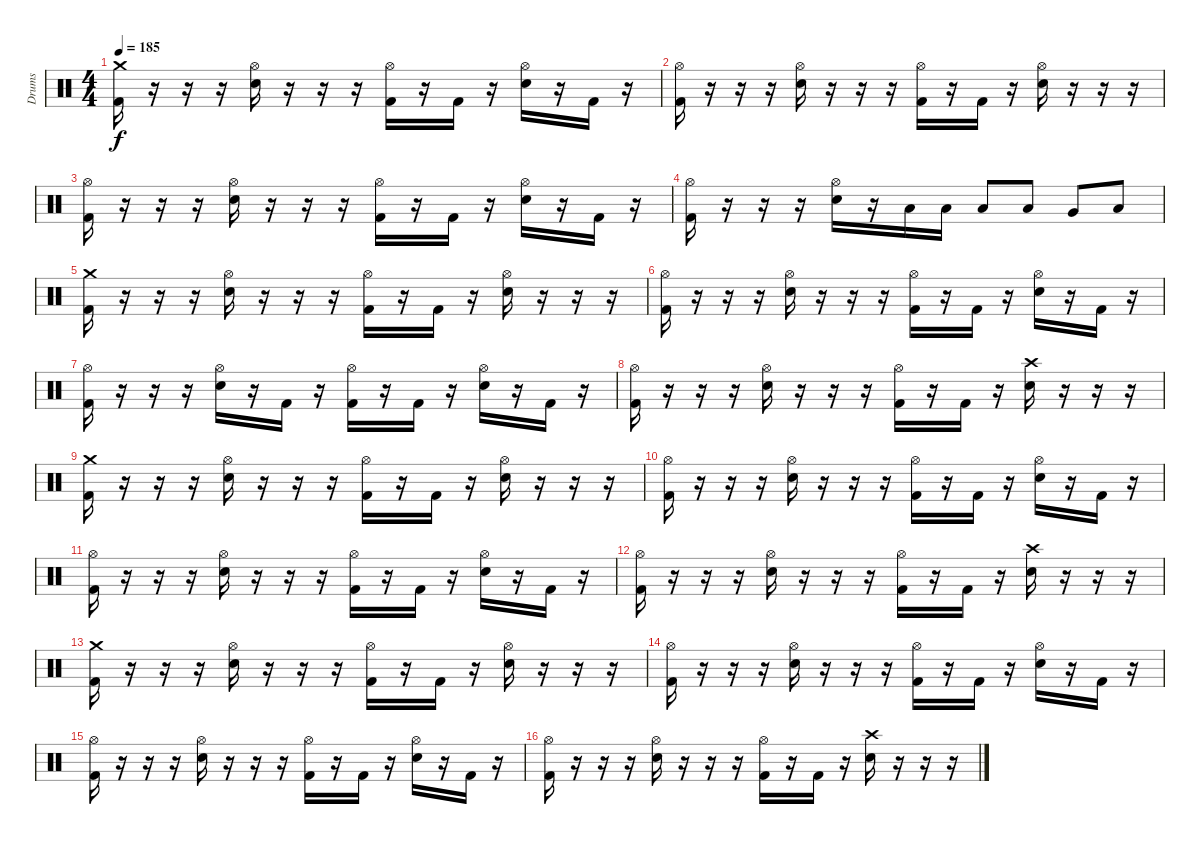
\track ("Drums" "Drums") {instrument percussion}
\staff {score}
\articulation defaults
\ts (4 4)
\tempo 185
\clef neutral
\ks c
("Crash medium (hit)" "Kick (hit) 2").16{dy f} r.16 r.16 r.16 ("Hi-Hat (open)" "Electric Snare (hit)").16 r.16 r.16 r.16 ("Hi-Hat (open)" "Kick (hit) 2").16 r.16 "Kick (hit) 2".16 r.16 ("Hi-Hat (open)" "Electric Snare (hit)").16 r.16 "Kick (hit) 2".16 r.16 |
("Hi-Hat (open)" "Kick (hit) 2").16 r.16 r.16 r.16 ("Hi-Hat (open)" "Electric Snare (hit)").16 r.16 r.16 r.16 ("Hi-Hat (open)" "Kick (hit) 2").16 r.16 "Kick (hit) 2".16 r.16 ("Hi-Hat (open)" "Electric Snare (hit)").16 r.16 r.16 r.16 |
("Hi-Hat (open)" "Kick (hit) 2").16 r.16 r.16 r.16 ("Hi-Hat (open)" "Electric Snare (hit)").16 r.16 r.16 r.16 ("Hi-Hat (open)" "Kick (hit) 2").16 r.16 "Kick (hit) 2".16 r.16 ("Hi-Hat (open)" "Electric Snare (hit)").16 r.16 "Kick (hit) 2".16 r.16 |
("Hi-Hat (open)" "Kick (hit) 2").16 r.16 r.16 r.16 ("Hi-Hat (open)" "Electric Snare (hit)").16 r.16 "Low Tom (hit)".16 "Low Tom (hit)".16 "Low Tom (hit)".8 "Low Tom (hit)".8 "Very Low Tom (hit)".8 "Low Floor Tom (hit)".8 |
("Crash medium (hit)" "Kick (hit) 2").16 r.16 r.16 r.16 ("Hi-Hat (open)" "Electric Snare (hit)").16 r.16 r.16 r.16 ("Hi-Hat (open)" "Kick (hit) 2").16 r.16 "Kick (hit) 2".16 r.16 ("Hi-Hat (open)" "Electric Snare (hit)").16 r.16 r.16 r.16 |
("Hi-Hat (open)" "Kick (hit) 2").16 r.16 r.16 r.16 ("Hi-Hat (open)" "Electric Snare (hit)").16 r.16 r.16 r.16 ("Hi-Hat (open)" "Kick (hit) 2").16 r.16 "Kick (hit) 2".16 r.16 ("Hi-Hat (open)" "Electric Snare (hit)").16 r.16 "Kick (hit) 2".16 r.16 |
("Hi-Hat (open)" "Kick (hit) 2").16 r.16 r.16 r.16 ("Hi-Hat (open)" "Electric Snare (hit)").16 r.16 "Kick (hit) 2".16 r.16 ("Hi-Hat (open)" "Kick (hit) 2").16 r.16 "Kick (hit) 2".16 r.16 ("Hi-Hat (open)" "Electric Snare (hit)").16 r.16 "Kick (hit) 2".16 r.16 |
("Hi-Hat (open)" "Kick (hit) 2").16 r.16 r.16 r.16 ("Hi-Hat (open)" "Electric Snare (hit)").16 r.16 r.16 r.16 ("Hi-Hat (open)" "Kick (hit) 2").16 r.16 "Kick (hit) 2".16 r.16 ("Crash high (hit)" "Electric Snare (hit)").16 r.16 r.16 r.16 |
("Crash medium (hit)" "Kick (hit) 2").16 r.16 r.16 r.16 ("Hi-Hat (open)" "Electric Snare (hit)").16 r.16 r.16 r.16 ("Hi-Hat (open)" "Kick (hit) 2").16 r.16 "Kick (hit) 2".16 r.16 ("Hi-Hat (open)" "Electric Snare (hit)").16 r.16 r.16 r.16 |
("Hi-Hat (open)" "Kick (hit) 2").16 r.16 r.16 r.16 ("Hi-Hat (open)" "Electric Snare (hit)").16 r.16 r.16 r.16 ("Hi-Hat (open)" "Kick (hit) 2").16 r.16 "Kick (hit) 2".16 r.16 ("Hi-Hat (open)" "Electric Snare (hit)").16 r.16 "Kick (hit) 2".16 r.16 |
("Hi-Hat (open)" "Kick (hit) 2").16 r.16 r.16 r.16 ("Hi-Hat (open)" "Electric Snare (hit)").16 r.16 r.16 r.16 ("Hi-Hat (open)" "Kick (hit) 2").16 r.16 "Kick (hit) 2".16 r.16 ("Hi-Hat (open)" "Electric Snare (hit)").16 r.16 "Kick (hit) 2".16 r.16 |
("Hi-Hat (open)" "Kick (hit) 2").16 r.16 r.16 r.16 ("Hi-Hat (open)" "Electric Snare (hit)").16 r.16 r.16 r.16 ("Hi-Hat (open)" "Kick (hit) 2").16 r.16 "Kick (hit) 2".16 r.16 ("Crash high (hit)" "Electric Snare (hit)").16 r.16 r.16 r.16 |
("Crash medium (hit)" "Kick (hit) 2").16 r.16 r.16 r.16 ("Hi-Hat (open)" "Electric Snare (hit)").16 r.16 r.16 r.16 ("Hi-Hat (open)" "Kick (hit) 2").16 r.16 "Kick (hit) 2".16 r.16 ("Hi-Hat (open)" "Electric Snare (hit)").16 r.16 r.16 r.16 |
("Hi-Hat (open)" "Kick (hit) 2").16 r.16 r.16 r.16 ("Hi-Hat (open)" "Electric Snare (hit)").16 r.16 r.16 r.16 ("Hi-Hat (open)" "Kick (hit) 2").16 r.16 "Kick (hit) 2".16 r.16 ("Hi-Hat (open)" "Electric Snare (hit)").16 r.16 "Kick (hit) 2".16 r.16 |
("Hi-Hat (open)" "Kick (hit) 2").16 r.16 r.16 r.16 ("Hi-Hat (open)" "Electric Snare (hit)").16 r.16 r.16 r.16 ("Hi-Hat (open)" "Kick (hit) 2").16 r.16 "Kick (hit) 2".16 r.16 ("Hi-Hat (open)" "Electric Snare (hit)").16 r.16 "Kick (hit) 2".16 r.16 |
("Hi-Hat (open)" "Kick (hit) 2").16 r.16 r.16 r.16 ("Hi-Hat (open)" "Electric Snare (hit)").16 r.16 r.16 r.16 ("Hi-Hat (open)" "Kick (hit) 2").16 r.16 "Kick (hit) 2".16 r.16 ("Crash high (hit)" "Electric Snare (hit)").16 r.16 r.16 r.16
